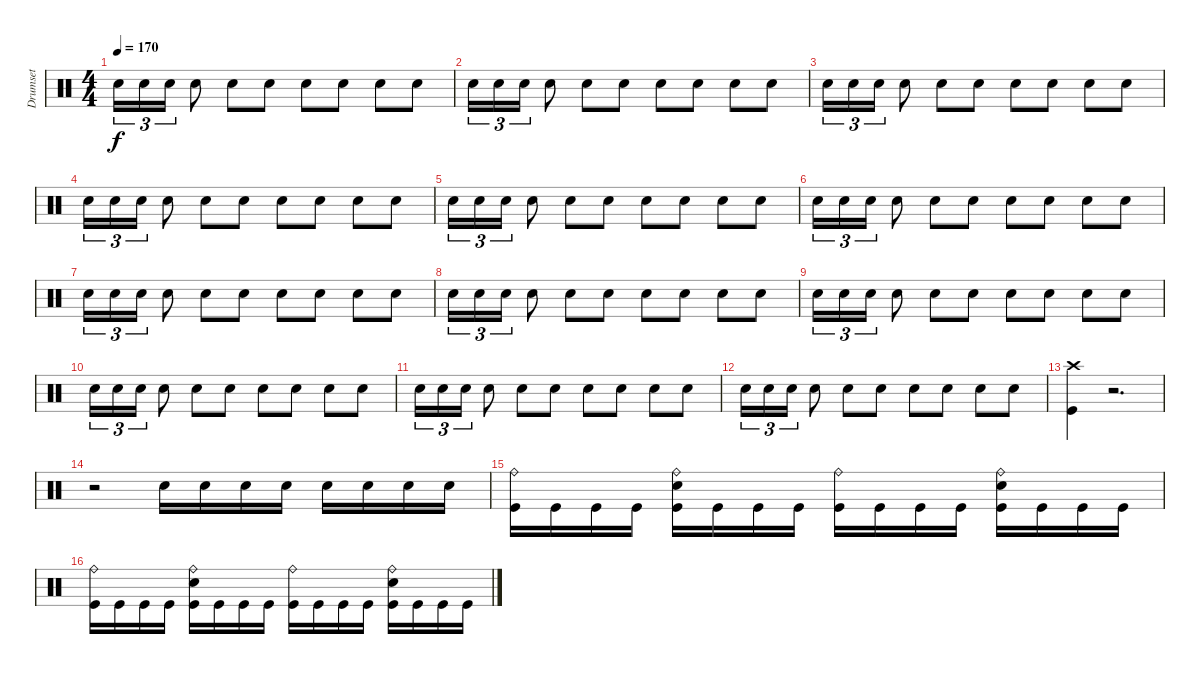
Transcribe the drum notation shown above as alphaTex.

\track ("Drumset" "Drumset") {instrument percussion}
\staff {score}
\articulation defaults
\ts (4 4)
\tempo 170
\clef neutral
\ks c "Snare (hit) 2".16{tu (3 2) dy f} "Snare (hit) 2".16{tu (3 2)} "Snare (hit) 2".16{tu (3 2)} "Snare (hit) 2".8 "Snare (hit) 2".8 "Snare (hit) 2".8 "Snare (hit) 2".8 "Snare (hit) 2".8 "Snare (hit) 2".8 "Snare (hit) 2".8
|
"Snare (hit) 2".16{tu (3 2)} "Snare (hit) 2".16{tu (3 2)} "Snare (hit) 2".16{tu (3 2)} "Snare (hit) 2".8 "Snare (hit) 2".8 "Snare (hit) 2".8 "Snare (hit) 2".8 "Snare (hit) 2".8 "Snare (hit) 2".8 "Snare (hit) 2".8 |
"Snare (hit) 2".16{tu (3 2)} "Snare (hit) 2".16{tu (3 2)} "Snare (hit) 2".16{tu (3 2)} "Snare (hit) 2".8 "Snare (hit) 2".8 "Snare (hit) 2".8 "Snare (hit) 2".8 "Snare (hit) 2".8 "Snare (hit) 2".8 "Snare (hit) 2".8 |
"Snare (hit) 2".16{tu (3 2)} "Snare (hit) 2".16{tu (3 2)} "Snare (hit) 2".16{tu (3 2)} "Snare (hit) 2".8 "Snare (hit) 2".8 "Snare (hit) 2".8 "Snare (hit) 2".8 "Snare (hit) 2".8 "Snare (hit) 2".8 "Snare (hit) 2".8 |
"Snare (hit) 2".16{tu (3 2)} "Snare (hit) 2".16{tu (3 2)} "Snare (hit) 2".16{tu (3 2)} "Snare (hit) 2".8 "Snare (hit) 2".8 "Snare (hit) 2".8 "Snare (hit) 2".8 "Snare (hit) 2".8 "Snare (hit) 2".8 "Snare (hit) 2".8 |
"Snare (hit) 2".16{tu (3 2)} "Snare (hit) 2".16{tu (3 2)} "Snare (hit) 2".16{tu (3 2)} "Snare (hit) 2".8 "Snare (hit) 2".8 "Snare (hit) 2".8 "Snare (hit) 2".8 "Snare (hit) 2".8 "Snare (hit) 2".8 "Snare (hit) 2".8 |
"Snare (hit) 2".16{tu (3 2)} "Snare (hit) 2".16{tu (3 2)} "Snare (hit) 2".16{tu (3 2)} "Snare (hit) 2".8 "Snare (hit) 2".8 "Snare (hit) 2".8 "Snare (hit) 2".8 "Snare (hit) 2".8 "Snare (hit) 2".8 "Snare (hit) 2".8 |
"Snare (hit) 2".16{tu (3 2)} "Snare (hit) 2".16{tu (3 2)} "Snare (hit) 2".16{tu (3 2)} "Snare (hit) 2".8 "Snare (hit) 2".8 "Snare (hit) 2".8 "Snare (hit) 2".8 "Snare (hit) 2".8 "Snare (hit) 2".8 "Snare (hit) 2".8 |
"Snare (hit) 2".16{tu (3 2)} "Snare (hit) 2".16{tu (3 2)} "Snare (hit) 2".16{tu (3 2)} "Snare (hit) 2".8 "Snare (hit) 2".8 "Snare (hit) 2".8 "Snare (hit) 2".8 "Snare (hit) 2".8 "Snare (hit) 2".8 "Snare (hit) 2".8 |
"Snare (hit) 2".16{tu (3 2)} "Snare (hit) 2".16{tu (3 2)} "Snare (hit) 2".16{tu (3 2)} "Snare (hit) 2".8 "Snare (hit) 2".8 "Snare (hit) 2".8 "Snare (hit) 2".8 "Snare (hit) 2".8 "Snare (hit) 2".8 "Snare (hit) 2".8 |
"Snare (hit) 2".16{tu (3 2)} "Snare (hit) 2".16{tu (3 2)} "Snare (hit) 2".16{tu (3 2)} "Snare (hit) 2".8 "Snare (hit) 2".8 "Snare (hit) 2".8 "Snare (hit) 2".8 "Snare (hit) 2".8 "Snare (hit) 2".8 "Snare (hit) 2".8 |
"Snare (hit) 2".16{tu (3 2)} "Snare (hit) 2".16{tu (3 2)} "Snare (hit) 2".16{tu (3 2)} "Snare (hit) 2".8 "Snare (hit) 2".8 "Snare (hit) 2".8 "Snare (hit) 2".8 "Snare (hit) 2".8 "Snare (hit) 2".8 "Snare (hit) 2".8 |
("Crash high (hit)" "Kick (hit)").4 r.2{d} |
r.2 "Snare (hit) 2".16 "Snare (hit) 2".16 "Snare (hit) 2".16 "Snare (hit) 2".16 "Snare (hit) 2".16 "Snare (hit) 2".16 "Snare (hit) 2".16 "Snare (hit) 2".16 |
("Ride (bell)" "Kick (hit)").16 "Kick (hit)".16 "Kick (hit)".16 "Kick (hit)".16 ("Ride (bell)" "Snare (hit) 2" "Kick (hit)").16 "Kick (hit)".16 "Kick (hit)".16 "Kick (hit)".16 ("Ride (bell)" "Kick (hit)").16 "Kick (hit)".16 "Kick (hit)".16 "Kick (hit)".16 ("Ride (bell)" "Snare (hit) 2" "Kick (hit)").16 "Kick (hit)".16 "Kick (hit)".16 "Kick (hit)".16 |
("Ride (bell)" "Kick (hit)").16 "Kick (hit)".16 "Kick (hit)".16 "Kick (hit)".16 ("Ride (bell)" "Snare (hit) 2" "Kick (hit)").16 "Kick (hit)".16 "Kick (hit)".16 "Kick (hit)".16 ("Ride (bell)" "Kick (hit)").16 "Kick (hit)".16 "Kick (hit)".16 "Kick (hit)".16 ("Ride (bell)" "Snare (hit) 2" "Kick (hit)").16 "Kick (hit)".16 "Kick (hit)".16 "Kick (hit)".16
